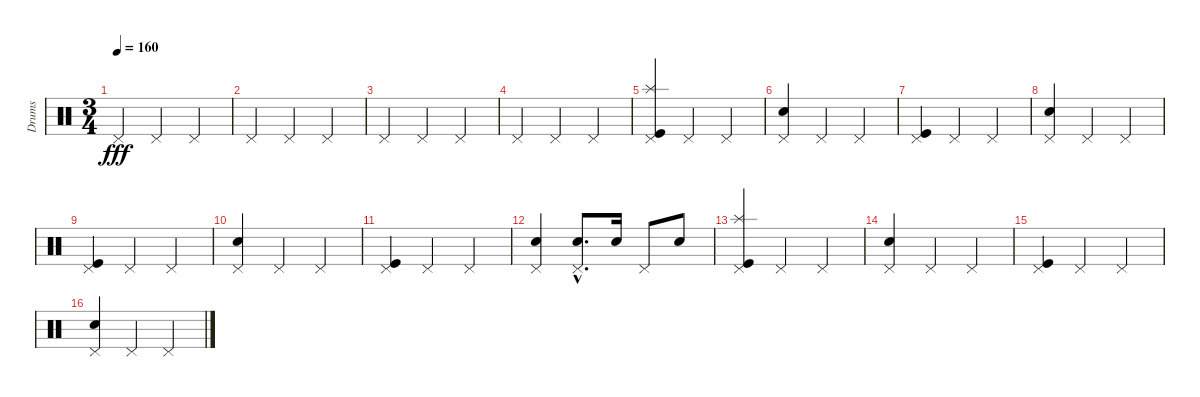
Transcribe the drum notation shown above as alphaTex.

\track ("Drums" "Drums") {instrument percussion}
\staff {score}
\articulation defaults
\ts (3 4)
\tempo 160
\clef neutral
\ks c "Pedal Hi-Hat (hit)".4{dy fff} "Pedal Hi-Hat (hit)".4 "Pedal Hi-Hat (hit)".4
|
"Pedal Hi-Hat (hit)".4 "Pedal Hi-Hat (hit)".4 "Pedal Hi-Hat (hit)".4 |
"Pedal Hi-Hat (hit)".4 "Pedal Hi-Hat (hit)".4 "Pedal Hi-Hat (hit)".4 |
"Pedal Hi-Hat (hit)".4 "Pedal Hi-Hat (hit)".4 "Pedal Hi-Hat (hit)".4 |
("Splash (hit)" "Kick (hit)" "Pedal Hi-Hat (hit)").4 "Pedal Hi-Hat (hit)".4 "Pedal Hi-Hat (hit)".4 |
("Electric Snare (hit)" "Pedal Hi-Hat (hit)").4 "Pedal Hi-Hat (hit)".4 "Pedal Hi-Hat (hit)".4 |
("Kick (hit)" "Pedal Hi-Hat (hit)").4 "Pedal Hi-Hat (hit)".4 "Pedal Hi-Hat (hit)".4 |
("Electric Snare (hit)" "Pedal Hi-Hat (hit)").4 "Pedal Hi-Hat (hit)".4 "Pedal Hi-Hat (hit)".4 |
("Kick (hit)" "Pedal Hi-Hat (hit)").4 "Pedal Hi-Hat (hit)".4 "Pedal Hi-Hat (hit)".4 |
("Electric Snare (hit)" "Pedal Hi-Hat (hit)").4 "Pedal Hi-Hat (hit)".4 "Pedal Hi-Hat (hit)".4 |
("Kick (hit)" "Pedal Hi-Hat (hit)").4 "Pedal Hi-Hat (hit)".4 "Pedal Hi-Hat (hit)".4 |
("Electric Snare (hit)" "Pedal Hi-Hat (hit)").4 ("Electric Snare (hit)"{hac} "Pedal Hi-Hat (hit)"{hac}).8{d} "Electric Snare (hit)".16 "Pedal Hi-Hat (hit)".8 "Electric Snare (hit)".8 |
("Splash (hit)" "Kick (hit)" "Pedal Hi-Hat (hit)").4 "Pedal Hi-Hat (hit)".4 "Pedal Hi-Hat (hit)".4 |
("Electric Snare (hit)" "Pedal Hi-Hat (hit)").4 "Pedal Hi-Hat (hit)".4 "Pedal Hi-Hat (hit)".4 |
("Kick (hit)" "Pedal Hi-Hat (hit)").4 "Pedal Hi-Hat (hit)".4 "Pedal Hi-Hat (hit)".4 |
("Electric Snare (hit)" "Pedal Hi-Hat (hit)").4 "Pedal Hi-Hat (hit)".4 "Pedal Hi-Hat (hit)".4
